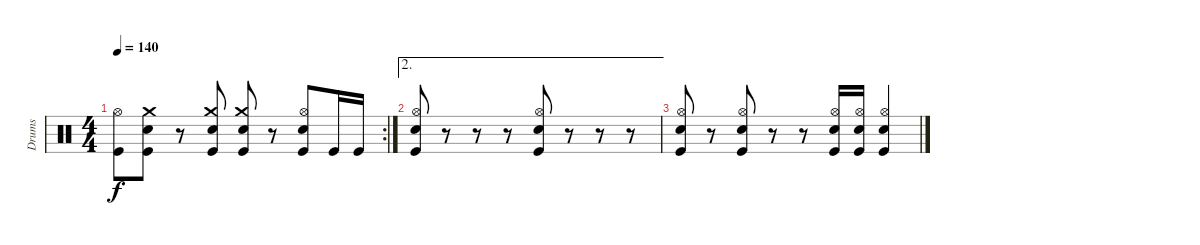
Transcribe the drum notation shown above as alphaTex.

\track ("Drums" "Drums") {instrument percussion}
\staff {score}
\articulation defaults
\rc 2
\ts (4 4)
\tempo 140
\clef neutral
\ks c
("Kick (hit)" "Hi-Hat (open)").8{dy f} ("Kick (hit)" "Crash medium (hit)" "Electric Snare (hit)").8 r.8 ("Kick (hit)" "Crash medium (hit)" "Electric Snare (hit)").8 ("Kick (hit)" "Crash medium (hit)" "Electric Snare (hit)").8 r.8 ("Kick (hit)" "Snare (hit) 2" "Hi-Hat (open)").8 "Kick (hit)".16 "Kick (hit)".16 |
\ae 2
("Kick (hit)" "Snare (hit) 2" "Hi-Hat (open)").8 r.8 r.8 r.8 ("Kick (hit)" "Snare (hit) 2" "Hi-Hat (open)").8 r.8 r.8 r.8 |
("Kick (hit)" "Snare (hit) 2" "Hi-Hat (open)").8 r.8 ("Kick (hit)" "Snare (hit) 2" "Hi-Hat (open)").8 r.8 r.8 ("Kick (hit)" "Snare (hit) 2" "Hi-Hat (open)").16 ("Kick (hit)" "Snare (hit) 2" "Hi-Hat (open)").16 ("Kick (hit)" "Snare (hit) 2" "Hi-Hat (open)").4
